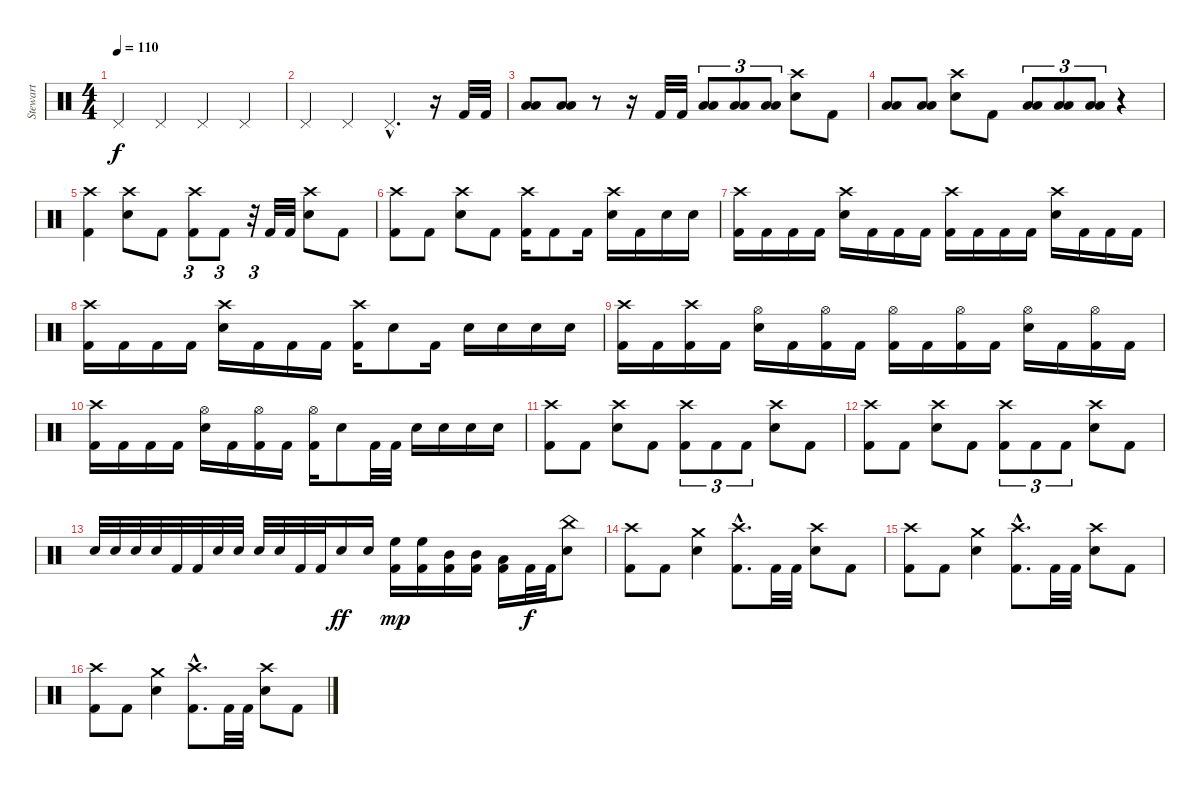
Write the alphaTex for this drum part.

\track ("Stewart" "Stewart") {instrument percussion}
\staff {score}
\articulation defaults
\ts (4 4)
\tempo 110
\clef neutral
\ks c "Pedal Hi-Hat (hit)".4{dy f} "Pedal Hi-Hat (hit)".4 "Pedal Hi-Hat (hit)".4 "Pedal Hi-Hat (hit)".4
|
"Pedal Hi-Hat (hit)".4 "Pedal Hi-Hat (hit)".4 "Pedal Hi-Hat (hit)"{hac}.4{d} r.16 "Kick (hit) 2".32 "Kick (hit) 2".32 |
("Low Floor Tom (hit)" "Low Tom (hit)").8 ("Low Floor Tom (hit)" "Low Tom (hit)").8 r.8 r.16 "Kick (hit) 2".32 "Kick (hit) 2".32 ("Low Floor Tom (hit)" "Low Tom (hit)").8{tu (3 2)} ("Low Floor Tom (hit)" "Low Tom (hit)").8{tu (3 2)} ("Low Floor Tom (hit)" "Low Tom (hit)").8{tu (3 2)} ("Snare (hit) 2" "Crash high (hit)").8 "Kick (hit) 2".8 |
("Low Floor Tom (hit)" "Low Tom (hit)").8 ("Low Floor Tom (hit)" "Low Tom (hit)").8 ("Snare (hit) 2" "Crash high (hit)").8 "Kick (hit) 2".8 ("Low Floor Tom (hit)" "Low Tom (hit)").8{tu (3 2)} ("Low Floor Tom (hit)" "Low Tom (hit)").8{tu (3 2)} ("Low Floor Tom (hit)" "Low Tom (hit)").8{tu (3 2)} r.4 |
("Crash high (hit)" "Kick (hit) 2").4 ("Crash high (hit)" "Snare (hit) 2").8 "Kick (hit) 2".8 ("Crash high (hit)" "Kick (hit) 2").8{tu (3 2)} "Kick (hit) 2".8{tu (3 2)} r.32{tu (3 2)} "Kick (hit) 2".32 "Kick (hit) 2".32 ("Crash high (hit)" "Snare (hit) 2").8 "Kick (hit) 2".8 |
("Crash high (hit)" "Kick (hit) 2").8 "Kick (hit) 2".8 ("Crash high (hit)" "Snare (hit) 2").8 "Kick (hit) 2".8 ("Crash high (hit)" "Kick (hit) 2").16 "Kick (hit) 2".8 "Kick (hit) 2".16 ("Crash high (hit)" "Snare (hit) 2").16 "Kick (hit) 2".16 "Snare (hit) 2".16 "Snare (hit) 2".16 |
("Kick (hit) 2" "Crash high (hit)").16 "Kick (hit) 2".16 "Kick (hit) 2".16 "Kick (hit) 2".16 ("Snare (hit) 2" "Crash high (hit)").16 "Kick (hit) 2".16 "Kick (hit) 2".16 "Kick (hit) 2".16 ("Kick (hit) 2" "Crash high (hit)").16 "Kick (hit) 2".16 "Kick (hit) 2".16 "Kick (hit) 2".16 ("Snare (hit) 2" "Crash high (hit)").16 "Kick (hit) 2".16 "Kick (hit) 2".16 "Kick (hit) 2".16 |
("Kick (hit) 2" "Crash high (hit)").16 "Kick (hit) 2".16 "Kick (hit) 2".16 "Kick (hit) 2".16 ("Snare (hit) 2" "Crash high (hit)").16 "Kick (hit) 2".16 "Kick (hit) 2".16 "Kick (hit) 2".16 ("Kick (hit) 2" "Crash high (hit)").16 "Snare (hit) 2".8 "Kick (hit) 2".16 "Snare (hit) 2".16 "Snare (hit) 2".16 "Snare (hit) 2".16 "Snare (hit) 2".16 |
("Kick (hit) 2" "Crash high (hit)").16 "Kick (hit) 2".16 ("Kick (hit) 2" "Crash high (hit)").16 "Kick (hit) 2".16 ("Snare (hit) 2" "Hi-Hat (open)").16 "Kick (hit) 2".16 ("Kick (hit) 2" "Hi-Hat (open)").16 "Kick (hit) 2".16 ("Kick (hit) 2" "Hi-Hat (open)").16 "Kick (hit) 2".16 ("Kick (hit) 2" "Hi-Hat (open)").16 "Kick (hit) 2".16 ("Snare (hit) 2" "Hi-Hat (open)").16 "Kick (hit) 2".16 ("Kick (hit) 2" "Hi-Hat (open)").16 "Kick (hit) 2".16 |
("Kick (hit) 2" "Crash high (hit)").16 "Kick (hit) 2".16 "Kick (hit) 2".16 "Kick (hit) 2".16 ("Snare (hit) 2" "Hi-Hat (open)").16 "Kick (hit) 2".16 ("Kick (hit) 2" "Hi-Hat (open)").16 "Kick (hit) 2".16 ("Kick (hit) 2" "Hi-Hat (open)").16 "Snare (hit) 2".8 "Kick (hit) 2".32 "Kick (hit) 2".32 "Snare (hit) 2".16 "Snare (hit) 2".16 "Snare (hit) 2".16 "Snare (hit) 2".16 |
("Kick (hit) 2" "Crash high (hit)").8 "Kick (hit) 2".8 ("Snare (hit) 2" "Crash high (hit)").8 "Kick (hit) 2".8 ("Kick (hit) 2" "Crash high (hit)").8{tu (3 2)} "Kick (hit) 2".8{tu (3 2)} "Kick (hit) 2".8{tu (3 2)} ("Snare (hit) 2" "Crash high (hit)").8 "Kick (hit) 2".8 |
("Kick (hit) 2" "Crash high (hit)").8 "Kick (hit) 2".8 ("Snare (hit) 2" "Crash high (hit)").8 "Kick (hit) 2".8 ("Kick (hit) 2" "Crash high (hit)").8{tu (3 2)} "Kick (hit) 2".8{tu (3 2)} "Kick (hit) 2".8{tu (3 2)} ("Snare (hit) 2" "Crash high (hit)").8 "Kick (hit) 2".8 |
"Snare (hit) 2".32 "Snare (hit) 2".32 "Snare (hit) 2".32 "Snare (hit) 2".32 "Kick (hit) 2".32 "Kick (hit) 2".32 "Snare (hit) 2".32 "Snare (hit) 2".32 "Snare (hit) 2".32 "Snare (hit) 2".32 "Kick (hit) 2".32 "Kick (hit) 2".32 "Snare (hit) 2".16{dy ff} "Snare (hit) 2".16 ("High Floor Tom (hit)" "Kick (hit) 2").16{dy mp} ("High Floor Tom (hit)" "Kick (hit) 2").16 ("Mid Tom (hit)" "Kick (hit) 2").16 ("Mid Tom (hit)" "Kick (hit) 2").16 ("Low Tom (hit)" "Kick (hit) 2").16 "Kick (hit) 2".32{dy f} "Kick (hit) 2".32 ("Snare (hit) 2" "China (hit)").8 |
("Kick (hit) 2" "Crash high (hit)").8 "Kick (hit) 2".8 ("Snare (hit) 2" "Crash medium (hit)").4 ("Kick (hit) 2"{hac} "Crash high (hit)"{hac}).8{d} "Kick (hit) 2".32 "Kick (hit) 2".32 ("Snare (hit) 2" "Crash high (hit)").8 "Kick (hit) 2".8 |
("Kick (hit) 2" "Crash high (hit)").8 "Kick (hit) 2".8 ("Snare (hit) 2" "Crash medium (hit)").4 ("Kick (hit) 2"{hac} "Crash high (hit)"{hac}).8{d} "Kick (hit) 2".32 "Kick (hit) 2".32 ("Snare (hit) 2" "Crash high (hit)").8 "Kick (hit) 2".8 |
("Kick (hit) 2" "Crash high (hit)").8 "Kick (hit) 2".8 ("Snare (hit) 2" "Crash medium (hit)").4 ("Kick (hit) 2"{hac} "Crash high (hit)"{hac}).8{d} "Kick (hit) 2".32 "Kick (hit) 2".32 ("Snare (hit) 2" "Crash high (hit)").8 "Kick (hit) 2".8
